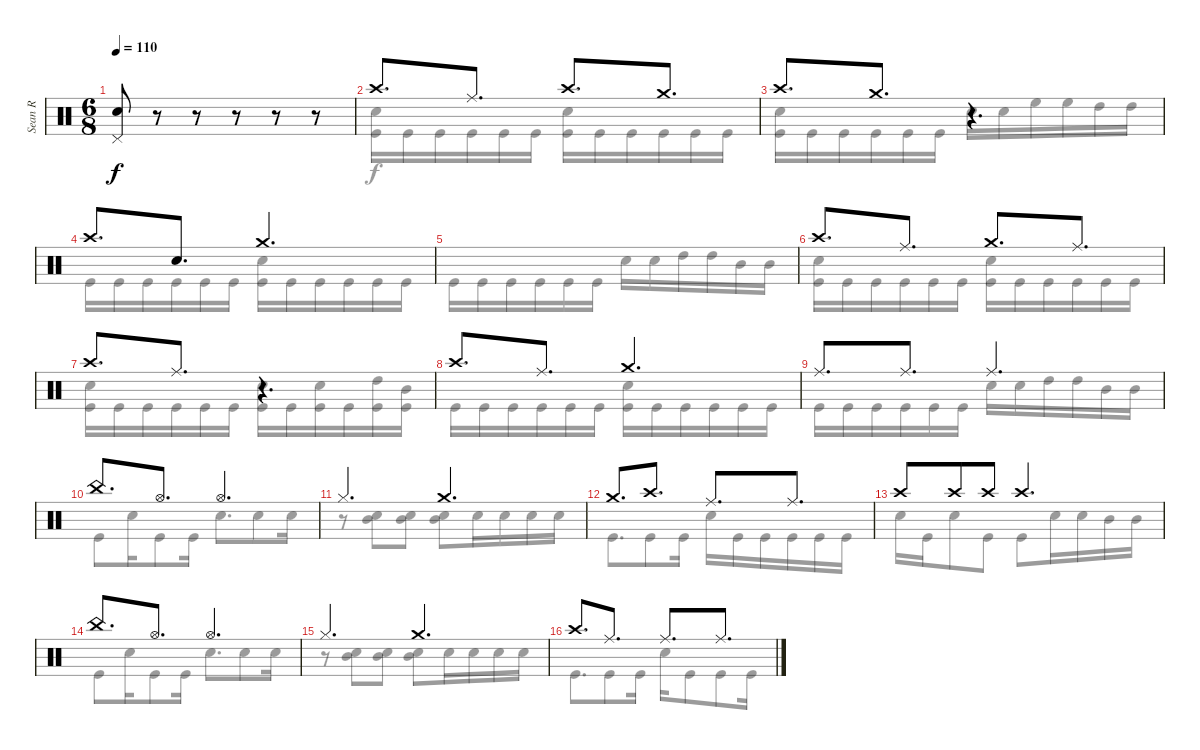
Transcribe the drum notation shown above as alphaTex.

\track ("Sean R" "Sean R") {instrument percussion}
\staff {score}
\articulation defaults
\voice
\ts (6 8)
\tempo 110
\clef neutral
\ks c
("Pedal Hi-Hat (hit)" "Snare (hit) 2").8{dy f} r.8 r.8 r.8 r.8 r.8 |
"Crash high (hit)".8{d} "Ride (middle)".8{d} "Crash high (hit)".8{d} "Crash medium (hit)".8{d} |
"Crash high (hit)".8{d} "Crash medium (hit)".8{d} r.4{d} |
"Crash high (hit)".8{d} "Snare (hit)".8{d} "Crash medium (hit)".4{d} |
|
"Crash high (hit)".8{d} "Ride (middle)".8{d} "Crash medium (hit)".8{d} "Ride (middle)".8{d} |
"Crash high (hit)".8{d} "Ride (middle)".8{d} r.4{d} |
"Crash high (hit)".8{d} "Ride (middle)".8{d} "Crash medium (hit)".4{d} |
"Ride (middle)".8{d} "Ride (middle)".8{d} "Ride (middle)".4{d} |
"China (hit)".8{d} "Hi-Hat (open)".8{d} "Hi-Hat (open)".4{d} |
"Hi-Hat (closed)".4{d} "Crash medium (hit)".4{d} |
"Crash medium (hit)".8{d} "Crash high (hit)".8{d} "Ride (middle)".8{d} "Ride (middle)".8{d} |
"Crash high (hit)".8 "Crash high (hit)".8 "Crash high (hit)".8 "Crash high (hit)".4{d} |
"China (hit)".8{d} "Hi-Hat (open)".8{d} "Hi-Hat (open)".4{d} |
"Hi-Hat (closed)".4{d} "Crash medium (hit)".4{d} |
"Crash high (hit)".8{d} "Ride (middle)".8{d} "Ride (middle)".8{d} "Ride (middle)".8{d}
\voice
\clef neutral
\ottava regular
\simile none
\ks c
|
("Snare (hit) 2" "Kick (hit)").16 "Kick (hit)".16 "Kick (hit)".16 "Kick (hit)".16 "Kick (hit)".16 "Kick (hit)".16 ("Snare (hit) 2" "Kick (hit)").16 "Kick (hit)".16 "Kick (hit)".16 "Kick (hit)".16 "Kick (hit)".16 "Kick (hit)".16 |
("Snare (hit) 2" "Kick (hit)").16 "Kick (hit)".16 "Kick (hit)".16 "Kick (hit)".16 "Kick (hit)".16 "Kick (hit)".16 "Snare (hit) 2".16 "Snare (hit) 2".16 "High Floor Tom (hit)".16 "High Floor Tom (hit)".16 "High Tom (hit)".16 "High Tom (hit)".16 |
"Kick (hit)".16 "Kick (hit)".16 "Kick (hit)".16 "Kick (hit)".16 "Kick (hit)".16 "Kick (hit)".16 ("Snare (hit) 2" "Kick (hit)").16 "Kick (hit)".16 "Kick (hit)".16 "Kick (hit)".16 "Kick (hit)".16 "Kick (hit)".16 |
"Kick (hit)".16 "Kick (hit)".16 "Kick (hit)".16 "Kick (hit)".16 "Kick (hit)".16 "Kick (hit)".16 "Snare (hit) 2".16 "Snare (hit) 2".16 "High Tom (hit)".16 "High Tom (hit)".16 "Mid Tom (hit)".16 "Mid Tom (hit)".16 |
("Snare (hit) 2" "Kick (hit)").16 "Kick (hit)".16 "Kick (hit)".16 "Kick (hit)".16 "Kick (hit)".16 "Kick (hit)".16 ("Snare (hit) 2" "Kick (hit)").16 "Kick (hit)".16 "Kick (hit)".16 "Kick (hit)".16 "Kick (hit)".16 "Kick (hit)".16 |
("Snare (hit) 2" "Kick (hit)").16 "Kick (hit)".16 "Kick (hit)".16 "Kick (hit)".16 "Kick (hit)".16 "Kick (hit)".16 ("Snare (hit) 2" "Kick (hit)").16 "Kick (hit)".16 ("Snare (hit) 2" "Kick (hit)").16 "Kick (hit)".16 ("High Tom (hit)" "Kick (hit)").16 ("Mid Tom (hit)" "Kick (hit)").16 |
"Kick (hit)".16 "Kick (hit)".16 "Kick (hit)".16 "Kick (hit)".16 "Kick (hit)".16 "Kick (hit)".16 ("Snare (hit) 2" "Kick (hit)").16 "Kick (hit)".16 "Kick (hit)".16 "Kick (hit)".16 "Kick (hit)".16 "Kick (hit)".16 |
"Kick (hit)".16 "Kick (hit)".16 "Kick (hit)".16 "Kick (hit)".16 "Kick (hit)".16 "Kick (hit)".16 "Snare (hit) 2".16 "Snare (hit) 2".16 "High Tom (hit)".16 "High Tom (hit)".16 "Mid Tom (hit)".16 "Mid Tom (hit)".16 |
"Kick (hit)".8 "Snare (hit) 2".16 "Kick (hit)".8 "Kick (hit)".16 "Snare (hit) 2".8{d} "Snare (hit) 2".8 "Snare (hit) 2".16 |
r.8 ("Mid Tom (hit)" "Snare (hit) 2").8 ("Mid Tom (hit)" "Snare (hit) 2").8 ("Mid Tom (hit)" "Snare (hit) 2").8 "Snare (hit) 2".16 "Snare (hit) 2".16 "Snare (hit) 2".16 "Snare (hit) 2".16 |
"Kick (hit)".8{d} "Kick (hit)".8 "Kick (hit)".16 "Snare (hit) 2".16 "Kick (hit)".16 "Kick (hit)".16 "Kick (hit)".16 "Kick (hit)".16 "Kick (hit)".16 |
"Snare (hit) 2".16 "Kick (hit)".16 "Snare (hit) 2".8 "Kick (hit)".8 "Kick (hit)".8 "Snare (hit) 2".16 "Snare (hit) 2".16 "Mid Tom (hit)".16 "Mid Tom (hit)".16 |
"Kick (hit)".8 "Snare (hit) 2".16 "Kick (hit)".8 "Kick (hit)".16 "Snare (hit) 2".8{d} "Snare (hit) 2".8 "Snare (hit) 2".16 |
r.8 ("Mid Tom (hit)" "Snare (hit) 2").8 ("Mid Tom (hit)" "Snare (hit) 2").8 ("Mid Tom (hit)" "Snare (hit) 2").8 "Snare (hit) 2".16 "Snare (hit) 2".16 "Snare (hit) 2".16 "Snare (hit) 2".16 |
"Kick (hit)".8{d} "Kick (hit)".8 "Kick (hit)".16 "Snare (hit) 2".16 "Kick (hit)".8 "Kick (hit)".8 "Kick (hit)".16
